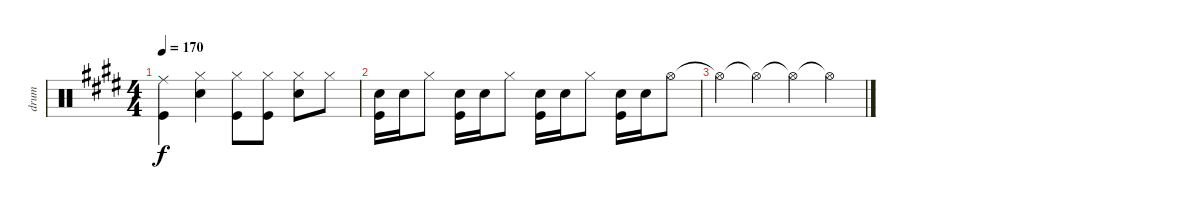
\track ("drum" "drum") {instrument percussion}
\staff {score}
\articulation defaults
\ts (4 4)
\tempo 170
\clef neutral
\ks e
("Ride (middle)" "Kick (hit)").4{dy f} ("Hi-Hat (closed)" "Snare (hit) 2").4 ("Hi-Hat (closed)" "Kick (hit)").8 ("Hi-Hat (closed)" "Kick (hit)").8 ("Snare (hit) 2" "Hi-Hat (closed)").8 "Hi-Hat (closed)".8 |
("Kick (hit)" "Snare (hit) 2").16 "Snare (hit) 2".16 "Hi-Hat (closed)".8 ("Kick (hit)" "Snare (hit) 2").16 "Snare (hit) 2".16 "Hi-Hat (closed)".8 ("Kick (hit)" "Snare (hit) 2").16 "Snare (hit) 2".16 "Hi-Hat (closed)".8 ("Kick (hit)" "Snare (hit) 2").16 "Snare (hit) 2".16 "Hi-Hat (open)".8 |
"Hi-Hat (open)"{t}.4 "Hi-Hat (open)"{t}.4 "Hi-Hat (open)"{t}.4 "Hi-Hat (open)"{t}.4
